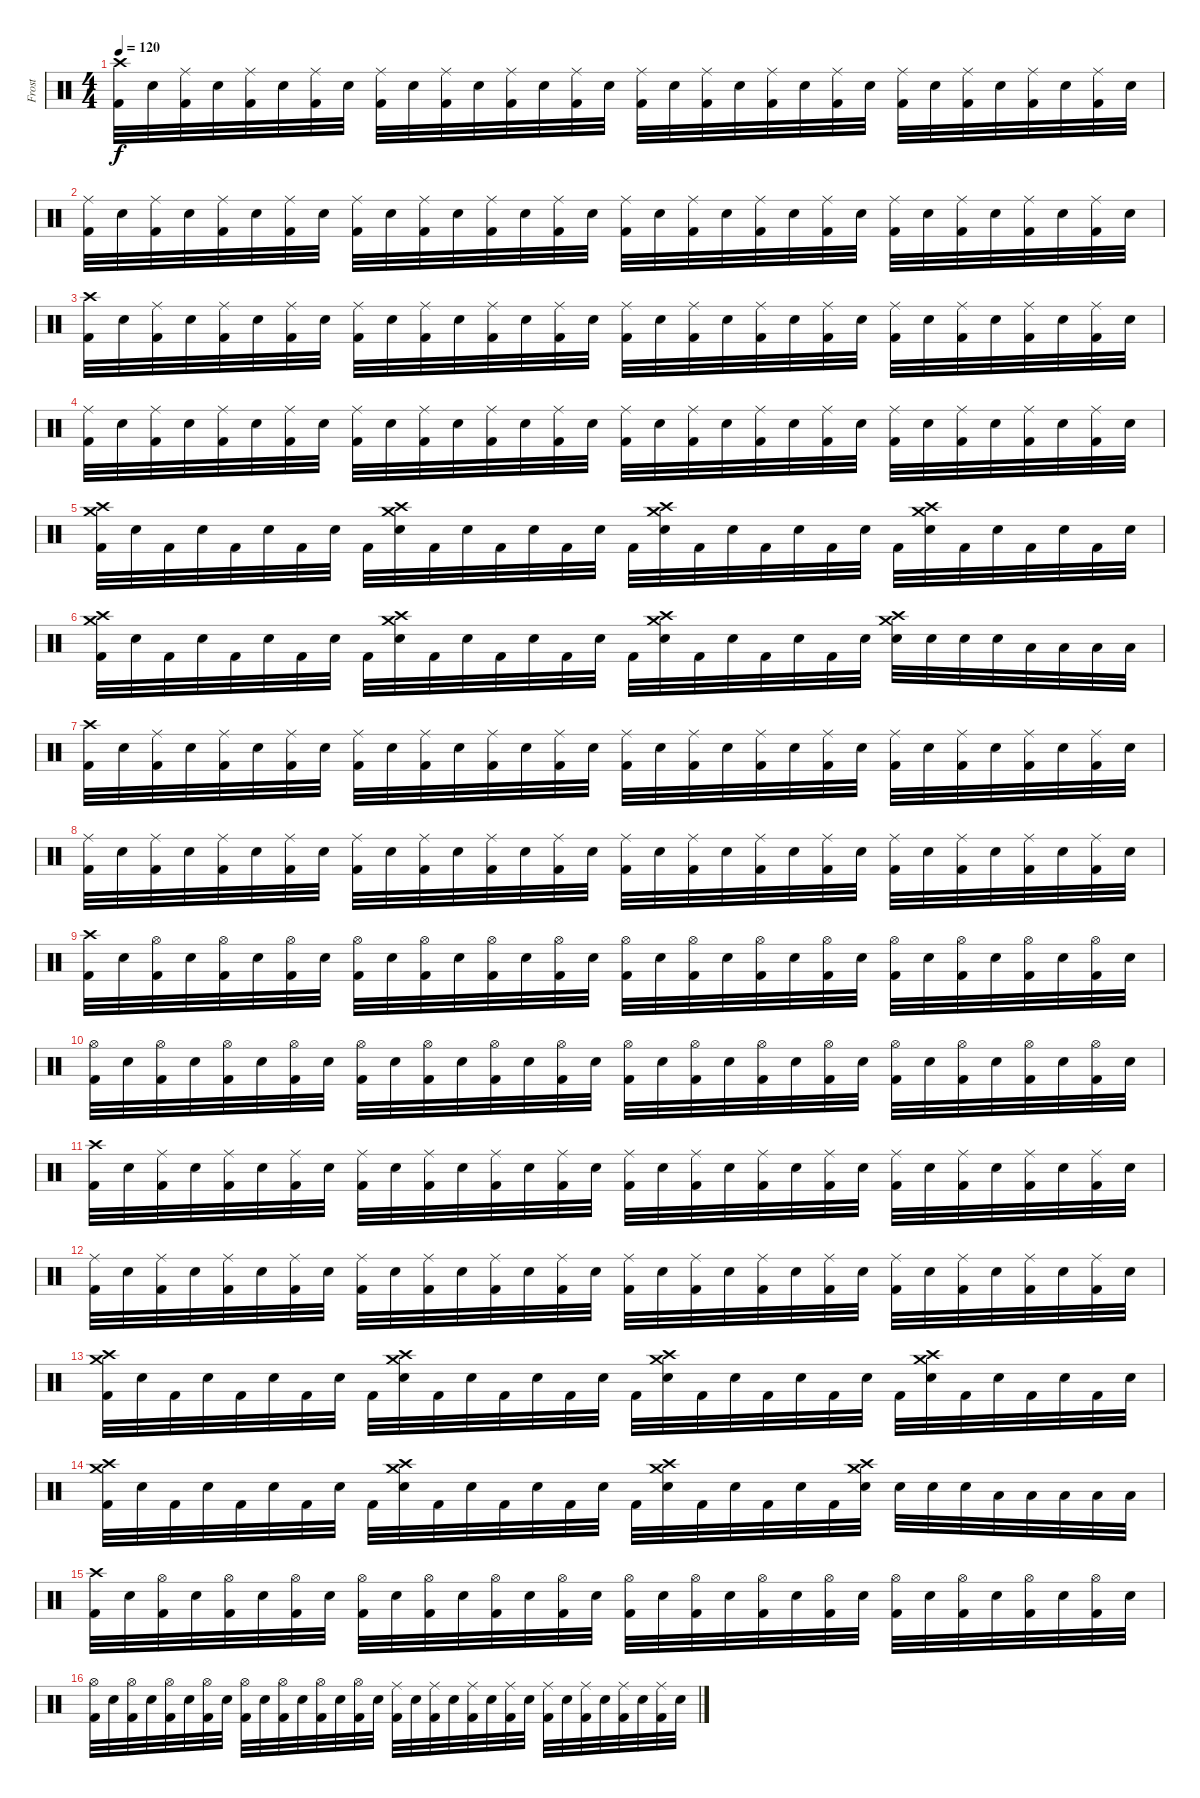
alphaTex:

\track ("Frost" "Frost") {instrument percussion}
\staff {score}
\articulation defaults
\ts (4 4)
\tempo 120
\clef neutral
\ks c
("Crash high (hit)" "Kick (hit) 2").32{dy f} "Snare (hit) 2".32 ("Ride (middle)" "Kick (hit) 2").32 "Snare (hit) 2".32 ("Ride (middle)" "Kick (hit) 2").32 "Snare (hit) 2".32 ("Ride (middle)" "Kick (hit) 2").32 "Snare (hit) 2".32 ("Ride (middle)" "Kick (hit) 2").32 "Snare (hit) 2".32 ("Ride (middle)" "Kick (hit) 2").32 "Snare (hit) 2".32 ("Ride (middle)" "Kick (hit) 2").32 "Snare (hit) 2".32 ("Ride (middle)" "Kick (hit) 2").32 "Snare (hit) 2".32 ("Ride (middle)" "Kick (hit) 2").32 "Snare (hit) 2".32 ("Ride (middle)" "Kick (hit) 2").32 "Snare (hit) 2".32 ("Ride (middle)" "Kick (hit) 2").32 "Snare (hit) 2".32 ("Ride (middle)" "Kick (hit) 2").32 "Snare (hit) 2".32 ("Ride (middle)" "Kick (hit) 2").32 "Snare (hit) 2".32 ("Ride (middle)" "Kick (hit) 2").32 "Snare (hit) 2".32 ("Ride (middle)" "Kick (hit) 2").32 "Snare (hit) 2".32 ("Ride (middle)" "Kick (hit) 2").32 "Snare (hit) 2".32 |
("Ride (middle)" "Kick (hit) 2").32 "Snare (hit) 2".32 ("Ride (middle)" "Kick (hit) 2").32 "Snare (hit) 2".32 ("Ride (middle)" "Kick (hit) 2").32 "Snare (hit) 2".32 ("Ride (middle)" "Kick (hit) 2").32 "Snare (hit) 2".32 ("Ride (middle)" "Kick (hit) 2").32 "Snare (hit) 2".32 ("Ride (middle)" "Kick (hit) 2").32 "Snare (hit) 2".32 ("Ride (middle)" "Kick (hit) 2").32 "Snare (hit) 2".32 ("Ride (middle)" "Kick (hit) 2").32 "Snare (hit) 2".32 ("Ride (middle)" "Kick (hit) 2").32 "Snare (hit) 2".32 ("Ride (middle)" "Kick (hit) 2").32 "Snare (hit) 2".32 ("Ride (middle)" "Kick (hit) 2").32 "Snare (hit) 2".32 ("Ride (middle)" "Kick (hit) 2").32 "Snare (hit) 2".32 ("Ride (middle)" "Kick (hit) 2").32 "Snare (hit) 2".32 ("Ride (middle)" "Kick (hit) 2").32 "Snare (hit) 2".32 ("Ride (middle)" "Kick (hit) 2").32 "Snare (hit) 2".32 ("Ride (middle)" "Kick (hit) 2").32 "Snare (hit) 2".32 |
("Crash high (hit)" "Kick (hit) 2").32 "Snare (hit) 2".32 ("Ride (middle)" "Kick (hit) 2").32 "Snare (hit) 2".32 ("Ride (middle)" "Kick (hit) 2").32 "Snare (hit) 2".32 ("Ride (middle)" "Kick (hit) 2").32 "Snare (hit) 2".32 ("Ride (middle)" "Kick (hit) 2").32 "Snare (hit) 2".32 ("Ride (middle)" "Kick (hit) 2").32 "Snare (hit) 2".32 ("Ride (middle)" "Kick (hit) 2").32 "Snare (hit) 2".32 ("Ride (middle)" "Kick (hit) 2").32 "Snare (hit) 2".32 ("Ride (middle)" "Kick (hit) 2").32 "Snare (hit) 2".32 ("Ride (middle)" "Kick (hit) 2").32 "Snare (hit) 2".32 ("Ride (middle)" "Kick (hit) 2").32 "Snare (hit) 2".32 ("Ride (middle)" "Kick (hit) 2").32 "Snare (hit) 2".32 ("Ride (middle)" "Kick (hit) 2").32 "Snare (hit) 2".32 ("Ride (middle)" "Kick (hit) 2").32 "Snare (hit) 2".32 ("Ride (middle)" "Kick (hit) 2").32 "Snare (hit) 2".32 ("Ride (middle)" "Kick (hit) 2").32 "Snare (hit) 2".32 |
("Ride (middle)" "Kick (hit) 2").32 "Snare (hit) 2".32 ("Ride (middle)" "Kick (hit) 2").32 "Snare (hit) 2".32 ("Ride (middle)" "Kick (hit) 2").32 "Snare (hit) 2".32 ("Ride (middle)" "Kick (hit) 2").32 "Snare (hit) 2".32 ("Ride (middle)" "Kick (hit) 2").32 "Snare (hit) 2".32 ("Ride (middle)" "Kick (hit) 2").32 "Snare (hit) 2".32 ("Ride (middle)" "Kick (hit) 2").32 "Snare (hit) 2".32 ("Ride (middle)" "Kick (hit) 2").32 "Snare (hit) 2".32 ("Ride (middle)" "Kick (hit) 2").32 "Snare (hit) 2".32 ("Ride (middle)" "Kick (hit) 2").32 "Snare (hit) 2".32 ("Ride (middle)" "Kick (hit) 2").32 "Snare (hit) 2".32 ("Ride (middle)" "Kick (hit) 2").32 "Snare (hit) 2".32 ("Ride (middle)" "Kick (hit) 2").32 "Snare (hit) 2".32 ("Ride (middle)" "Kick (hit) 2").32 "Snare (hit) 2".32 ("Ride (middle)" "Kick (hit) 2").32 "Snare (hit) 2".32 ("Ride (middle)" "Kick (hit) 2").32 "Snare (hit) 2".32 |
("Crash medium (hit)" "Crash high (hit)" "Kick (hit) 2").32 "Snare (hit) 2".32 "Kick (hit) 2".32 "Snare (hit) 2".32 "Kick (hit) 2".32 "Snare (hit) 2".32 "Kick (hit) 2".32 "Snare (hit) 2".32 "Kick (hit) 2".32 ("Crash medium (hit)" "Crash high (hit)" "Snare (hit) 2").32 "Kick (hit) 2".32 "Snare (hit) 2".32 "Kick (hit) 2".32 "Snare (hit) 2".32 "Kick (hit) 2".32 "Snare (hit) 2".32 "Kick (hit) 2".32 ("Crash medium (hit)" "Crash high (hit)" "Snare (hit) 2").32 "Kick (hit) 2".32 "Snare (hit) 2".32 "Kick (hit) 2".32 "Snare (hit) 2".32 "Kick (hit) 2".32 "Snare (hit) 2".32 "Kick (hit) 2".32 ("Crash medium (hit)" "Crash high (hit)" "Snare (hit) 2").32 "Kick (hit) 2".32 "Snare (hit) 2".32 "Kick (hit) 2".32 "Snare (hit) 2".32 "Kick (hit) 2".32 "Snare (hit) 2".32 |
("Crash medium (hit)" "Crash high (hit)" "Kick (hit) 2").32 "Snare (hit) 2".32 "Kick (hit) 2".32 "Snare (hit) 2".32 "Kick (hit) 2".32 "Snare (hit) 2".32 "Kick (hit) 2".32 "Snare (hit) 2".32 "Kick (hit) 2".32 ("Crash medium (hit)" "Crash high (hit)" "Snare (hit) 2").32 "Kick (hit) 2".32 "Snare (hit) 2".32 "Kick (hit) 2".32 "Snare (hit) 2".32 "Kick (hit) 2".32 "Snare (hit) 2".32 "Kick (hit) 2".32 ("Crash medium (hit)" "Crash high (hit)" "Snare (hit) 2").32 "Kick (hit) 2".32 "Snare (hit) 2".32 "Kick (hit) 2".32 "Snare (hit) 2".32 "Kick (hit) 2".32 "Snare (hit) 2".32 ("Crash medium (hit)" "Crash high (hit)" "Snare (hit) 2").32 "Snare (hit) 2".32 "Snare (hit) 2".32 "Snare (hit) 2".32 "Low Tom (hit)".32 "Low Tom (hit)".32 "Low Tom (hit)".32 "Low Tom (hit)".32 |
("Crash high (hit)" "Kick (hit) 2").32 "Snare (hit) 2".32 ("Ride (middle)" "Kick (hit) 2").32 "Snare (hit) 2".32 ("Ride (middle)" "Kick (hit) 2").32 "Snare (hit) 2".32 ("Ride (middle)" "Kick (hit) 2").32 "Snare (hit) 2".32 ("Ride (middle)" "Kick (hit) 2").32 "Snare (hit) 2".32 ("Ride (middle)" "Kick (hit) 2").32 "Snare (hit) 2".32 ("Ride (middle)" "Kick (hit) 2").32 "Snare (hit) 2".32 ("Ride (middle)" "Kick (hit) 2").32 "Snare (hit) 2".32 ("Ride (middle)" "Kick (hit) 2").32 "Snare (hit) 2".32 ("Ride (middle)" "Kick (hit) 2").32 "Snare (hit) 2".32 ("Ride (middle)" "Kick (hit) 2").32 "Snare (hit) 2".32 ("Ride (middle)" "Kick (hit) 2").32 "Snare (hit) 2".32 ("Ride (middle)" "Kick (hit) 2").32 "Snare (hit) 2".32 ("Ride (middle)" "Kick (hit) 2").32 "Snare (hit) 2".32 ("Ride (middle)" "Kick (hit) 2").32 "Snare (hit) 2".32 ("Ride (middle)" "Kick (hit) 2").32 "Snare (hit) 2".32 |
("Ride (middle)" "Kick (hit) 2").32 "Snare (hit) 2".32 ("Ride (middle)" "Kick (hit) 2").32 "Snare (hit) 2".32 ("Ride (middle)" "Kick (hit) 2").32 "Snare (hit) 2".32 ("Ride (middle)" "Kick (hit) 2").32 "Snare (hit) 2".32 ("Ride (middle)" "Kick (hit) 2").32 "Snare (hit) 2".32 ("Ride (middle)" "Kick (hit) 2").32 "Snare (hit) 2".32 ("Ride (middle)" "Kick (hit) 2").32 "Snare (hit) 2".32 ("Ride (middle)" "Kick (hit) 2").32 "Snare (hit) 2".32 ("Ride (middle)" "Kick (hit) 2").32 "Snare (hit) 2".32 ("Ride (middle)" "Kick (hit) 2").32 "Snare (hit) 2".32 ("Ride (middle)" "Kick (hit) 2").32 "Snare (hit) 2".32 ("Ride (middle)" "Kick (hit) 2").32 "Snare (hit) 2".32 ("Ride (middle)" "Kick (hit) 2").32 "Snare (hit) 2".32 ("Ride (middle)" "Kick (hit) 2").32 "Snare (hit) 2".32 ("Ride (middle)" "Kick (hit) 2").32 "Snare (hit) 2".32 ("Ride (middle)" "Kick (hit) 2").32 "Snare (hit) 2".32 |
("Crash high (hit)" "Kick (hit) 2").32 "Snare (hit) 2".32 ("Hi-Hat (open)" "Kick (hit) 2").32 "Snare (hit) 2".32 ("Hi-Hat (open)" "Kick (hit) 2").32 "Snare (hit) 2".32 ("Hi-Hat (open)" "Kick (hit) 2").32 "Snare (hit) 2".32 ("Hi-Hat (open)" "Kick (hit) 2").32 "Snare (hit) 2".32 ("Hi-Hat (open)" "Kick (hit) 2").32 "Snare (hit) 2".32 ("Hi-Hat (open)" "Kick (hit) 2").32 "Snare (hit) 2".32 ("Hi-Hat (open)" "Kick (hit) 2").32 "Snare (hit) 2".32 ("Hi-Hat (open)" "Kick (hit) 2").32 "Snare (hit) 2".32 ("Hi-Hat (open)" "Kick (hit) 2").32 "Snare (hit) 2".32 ("Hi-Hat (open)" "Kick (hit) 2").32 "Snare (hit) 2".32 ("Hi-Hat (open)" "Kick (hit) 2").32 "Snare (hit) 2".32 ("Hi-Hat (open)" "Kick (hit) 2").32 "Snare (hit) 2".32 ("Hi-Hat (open)" "Kick (hit) 2").32 "Snare (hit) 2".32 ("Hi-Hat (open)" "Kick (hit) 2").32 "Snare (hit) 2".32 ("Hi-Hat (open)" "Kick (hit) 2").32 "Snare (hit) 2".32 |
("Hi-Hat (open)" "Kick (hit) 2").32 "Snare (hit) 2".32 ("Hi-Hat (open)" "Kick (hit) 2").32 "Snare (hit) 2".32 ("Hi-Hat (open)" "Kick (hit) 2").32 "Snare (hit) 2".32 ("Hi-Hat (open)" "Kick (hit) 2").32 "Snare (hit) 2".32 ("Hi-Hat (open)" "Kick (hit) 2").32 "Snare (hit) 2".32 ("Hi-Hat (open)" "Kick (hit) 2").32 "Snare (hit) 2".32 ("Hi-Hat (open)" "Kick (hit) 2").32 "Snare (hit) 2".32 ("Hi-Hat (open)" "Kick (hit) 2").32 "Snare (hit) 2".32 ("Hi-Hat (open)" "Kick (hit) 2").32 "Snare (hit) 2".32 ("Hi-Hat (open)" "Kick (hit) 2").32 "Snare (hit) 2".32 ("Hi-Hat (open)" "Kick (hit) 2").32 "Snare (hit) 2".32 ("Hi-Hat (open)" "Kick (hit) 2").32 "Snare (hit) 2".32 ("Hi-Hat (open)" "Kick (hit) 2").32 "Snare (hit) 2".32 ("Hi-Hat (open)" "Kick (hit) 2").32 "Snare (hit) 2".32 ("Hi-Hat (open)" "Kick (hit) 2").32 "Snare (hit) 2".32 ("Hi-Hat (open)" "Kick (hit) 2").32 "Snare (hit) 2".32 |
("Crash high (hit)" "Kick (hit) 2").32 "Snare (hit) 2".32 ("Ride (middle)" "Kick (hit) 2").32 "Snare (hit) 2".32 ("Ride (middle)" "Kick (hit) 2").32 "Snare (hit) 2".32 ("Ride (middle)" "Kick (hit) 2").32 "Snare (hit) 2".32 ("Ride (middle)" "Kick (hit) 2").32 "Snare (hit) 2".32 ("Ride (middle)" "Kick (hit) 2").32 "Snare (hit) 2".32 ("Ride (middle)" "Kick (hit) 2").32 "Snare (hit) 2".32 ("Ride (middle)" "Kick (hit) 2").32 "Snare (hit) 2".32 ("Ride (middle)" "Kick (hit) 2").32 "Snare (hit) 2".32 ("Ride (middle)" "Kick (hit) 2").32 "Snare (hit) 2".32 ("Ride (middle)" "Kick (hit) 2").32 "Snare (hit) 2".32 ("Ride (middle)" "Kick (hit) 2").32 "Snare (hit) 2".32 ("Ride (middle)" "Kick (hit) 2").32 "Snare (hit) 2".32 ("Ride (middle)" "Kick (hit) 2").32 "Snare (hit) 2".32 ("Ride (middle)" "Kick (hit) 2").32 "Snare (hit) 2".32 ("Ride (middle)" "Kick (hit) 2").32 "Snare (hit) 2".32 |
("Ride (middle)" "Kick (hit) 2").32 "Snare (hit) 2".32 ("Ride (middle)" "Kick (hit) 2").32 "Snare (hit) 2".32 ("Ride (middle)" "Kick (hit) 2").32 "Snare (hit) 2".32 ("Ride (middle)" "Kick (hit) 2").32 "Snare (hit) 2".32 ("Ride (middle)" "Kick (hit) 2").32 "Snare (hit) 2".32 ("Ride (middle)" "Kick (hit) 2").32 "Snare (hit) 2".32 ("Ride (middle)" "Kick (hit) 2").32 "Snare (hit) 2".32 ("Ride (middle)" "Kick (hit) 2").32 "Snare (hit) 2".32 ("Ride (middle)" "Kick (hit) 2").32 "Snare (hit) 2".32 ("Ride (middle)" "Kick (hit) 2").32 "Snare (hit) 2".32 ("Ride (middle)" "Kick (hit) 2").32 "Snare (hit) 2".32 ("Ride (middle)" "Kick (hit) 2").32 "Snare (hit) 2".32 ("Ride (middle)" "Kick (hit) 2").32 "Snare (hit) 2".32 ("Ride (middle)" "Kick (hit) 2").32 "Snare (hit) 2".32 ("Ride (middle)" "Kick (hit) 2").32 "Snare (hit) 2".32 ("Ride (middle)" "Kick (hit) 2").32 "Snare (hit) 2".32 |
("Crash medium (hit)" "Crash high (hit)" "Kick (hit) 2").32 "Snare (hit) 2".32 "Kick (hit) 2".32 "Snare (hit) 2".32 "Kick (hit) 2".32 "Snare (hit) 2".32 "Kick (hit) 2".32 "Snare (hit) 2".32 "Kick (hit) 2".32 ("Crash medium (hit)" "Crash high (hit)" "Snare (hit) 2").32 "Kick (hit) 2".32 "Snare (hit) 2".32 "Kick (hit) 2".32 "Snare (hit) 2".32 "Kick (hit) 2".32 "Snare (hit) 2".32 "Kick (hit) 2".32 ("Crash medium (hit)" "Crash high (hit)" "Snare (hit) 2").32 "Kick (hit) 2".32 "Snare (hit) 2".32 "Kick (hit) 2".32 "Snare (hit) 2".32 "Kick (hit) 2".32 "Snare (hit) 2".32 "Kick (hit) 2".32 ("Crash medium (hit)" "Crash high (hit)" "Snare (hit) 2").32 "Kick (hit) 2".32 "Snare (hit) 2".32 "Kick (hit) 2".32 "Snare (hit) 2".32 "Kick (hit) 2".32 "Snare (hit) 2".32 |
("Crash medium (hit)" "Crash high (hit)" "Kick (hit) 2").32 "Snare (hit) 2".32 "Kick (hit) 2".32 "Snare (hit) 2".32 "Kick (hit) 2".32 "Snare (hit) 2".32 "Kick (hit) 2".32 "Snare (hit) 2".32 "Kick (hit) 2".32 ("Crash medium (hit)" "Crash high (hit)" "Snare (hit) 2").32 "Kick (hit) 2".32 "Snare (hit) 2".32 "Kick (hit) 2".32 "Snare (hit) 2".32 "Kick (hit) 2".32 "Snare (hit) 2".32 "Kick (hit) 2".32 ("Crash medium (hit)" "Crash high (hit)" "Snare (hit) 2").32 "Kick (hit) 2".32 "Snare (hit) 2".32 "Kick (hit) 2".32 "Snare (hit) 2".32 "Kick (hit) 2".32 ("Crash medium (hit)" "Crash high (hit)" "Snare (hit) 2").32 "Snare (hit) 2".32 "Snare (hit) 2".32 "Snare (hit) 2".32 "Low Tom (hit)".32 "Low Tom (hit)".32 "Low Tom (hit)".32 "Low Tom (hit)".32 "Low Tom (hit)".32 |
("Crash high (hit)" "Kick (hit) 2").32 "Snare (hit) 2".32 ("Hi-Hat (open)" "Kick (hit) 2").32 "Snare (hit) 2".32 ("Hi-Hat (open)" "Kick (hit) 2").32 "Snare (hit) 2".32 ("Hi-Hat (open)" "Kick (hit) 2").32 "Snare (hit) 2".32 ("Hi-Hat (open)" "Kick (hit) 2").32 "Snare (hit) 2".32 ("Hi-Hat (open)" "Kick (hit) 2").32 "Snare (hit) 2".32 ("Hi-Hat (open)" "Kick (hit) 2").32 "Snare (hit) 2".32 ("Hi-Hat (open)" "Kick (hit) 2").32 "Snare (hit) 2".32 ("Hi-Hat (open)" "Kick (hit) 2").32 "Snare (hit) 2".32 ("Hi-Hat (open)" "Kick (hit) 2").32 "Snare (hit) 2".32 ("Hi-Hat (open)" "Kick (hit) 2").32 "Snare (hit) 2".32 ("Hi-Hat (open)" "Kick (hit) 2").32 "Snare (hit) 2".32 ("Hi-Hat (open)" "Kick (hit) 2").32 "Snare (hit) 2".32 ("Hi-Hat (open)" "Kick (hit) 2").32 "Snare (hit) 2".32 ("Hi-Hat (open)" "Kick (hit) 2").32 "Snare (hit) 2".32 ("Hi-Hat (open)" "Kick (hit) 2").32 "Snare (hit) 2".32 |
("Hi-Hat (open)" "Kick (hit) 2").32 "Snare (hit) 2".32 ("Hi-Hat (open)" "Kick (hit) 2").32 "Snare (hit) 2".32 ("Hi-Hat (open)" "Kick (hit) 2").32 "Snare (hit) 2".32 ("Hi-Hat (open)" "Kick (hit) 2").32 "Snare (hit) 2".32 ("Hi-Hat (open)" "Kick (hit) 2").32 "Snare (hit) 2".32 ("Hi-Hat (open)" "Kick (hit) 2").32 "Snare (hit) 2".32 ("Hi-Hat (open)" "Kick (hit) 2").32 "Snare (hit) 2".32 ("Hi-Hat (open)" "Kick (hit) 2").32 "Snare (hit) 2".32 ("Ride (middle)" "Kick (hit) 2").32 "Snare (hit) 2".32 ("Ride (middle)" "Kick (hit) 2").32 "Snare (hit) 2".32 ("Ride (middle)" "Kick (hit) 2").32 "Snare (hit) 2".32 ("Ride (middle)" "Kick (hit) 2").32 "Snare (hit) 2".32 ("Ride (middle)" "Kick (hit) 2").32 "Snare (hit) 2".32 ("Ride (middle)" "Kick (hit) 2").32 "Snare (hit) 2".32 ("Ride (middle)" "Kick (hit) 2").32 "Snare (hit) 2".32 ("Ride (middle)" "Kick (hit) 2").32 "Snare (hit) 2".32
